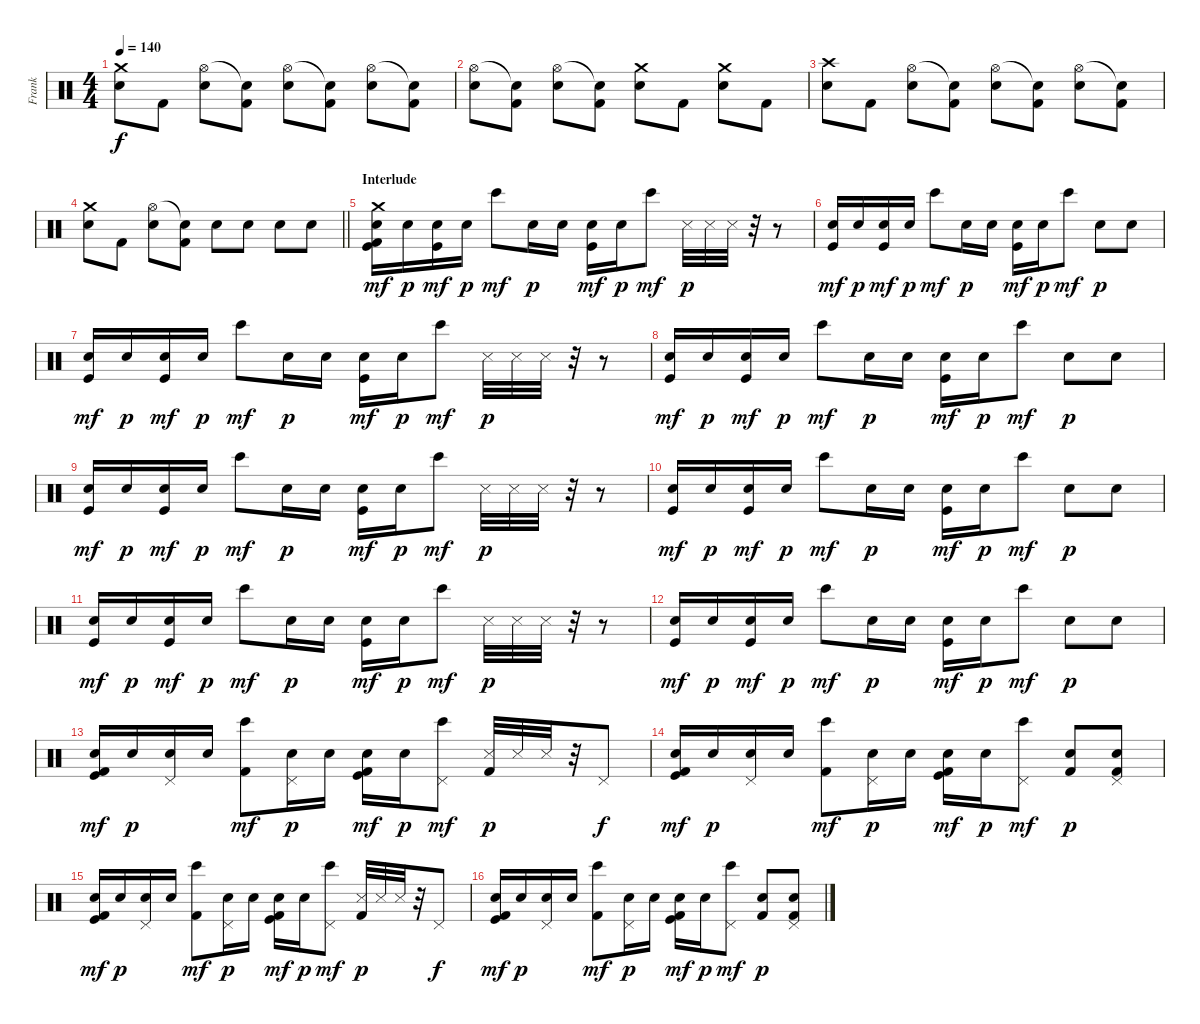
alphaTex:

\track ("Frank" "Frank") {instrument percussion}
\staff {score}
\articulation defaults
\ts (4 4)
\tempo 140
\clef neutral
\ks c
("Crash medium (hit)" "Snare (hit) 2").8{dy f} "Kick (hit) 2".8 ("Hi-Hat (open)" "Snare (hit) 2").8 ("Snare (hit)"{t} "Kick (hit) 2").8 ("Hi-Hat (open)" "Snare (hit) 2").8 ("Snare (hit)"{t} "Kick (hit) 2").8 ("Hi-Hat (open)" "Snare (hit) 2").8 ("Snare (hit)"{t} "Kick (hit) 2").8 |
("Hi-Hat (open)" "Snare (hit) 2").8 ("Snare (hit)"{t} "Kick (hit) 2").8 ("Hi-Hat (open)" "Snare (hit) 2").8 ("Snare (hit)"{t} "Kick (hit) 2").8 ("Crash medium (hit)" "Snare (hit) 2").8 "Kick (hit) 2".8 ("Crash medium (hit)" "Snare (hit) 2").8 "Kick (hit) 2".8 |
("Crash high (hit)" "Snare (hit) 2").8 "Kick (hit) 2".8 ("Hi-Hat (open)" "Snare (hit) 2").8 ("Snare (hit)"{t} "Kick (hit) 2").8 ("Hi-Hat (open)" "Snare (hit) 2").8 ("Snare (hit)"{t} "Kick (hit) 2").8 ("Hi-Hat (open)" "Snare (hit) 2").8 ("Snare (hit)"{t} "Kick (hit) 2").8 |
\barLineRight lightlight
("Crash medium (hit)" "Snare (hit) 2").8 "Kick (hit) 2".8 ("Hi-Hat (open)" "Snare (hit) 2").8 ("Snare (hit)"{t} "Kick (hit) 2").8 "Snare (hit) 2".8 "Snare (hit) 2".8 "Snare (hit) 2".8 "Snare (hit) 2".8 |
\section ("" "Interlude")
("Crash medium (hit)" "Kick (hit) 2" "Electric Snare (hit)" "Kick (hit)").16{dy mf volume 9} "Electric Snare (hit)".16{dy p} ("Electric Snare (hit)" "Kick (hit)").16{dy mf} "Electric Snare (hit)".16{dy p} "Bongo High (hit)".8{dy mf} "Electric Snare (hit)".16{dy p} "Electric Snare (hit)".16 ("Electric Snare (hit)" "Kick (hit)").16{dy mf} "Electric Snare (hit)".16{dy p} "Bongo High (hit)".8{dy mf} "Snare (side stick) 3".32{dy p} "Snare (side stick) 3".32 "Snare (side stick) 3".32 r.32 r.8 |
("Electric Snare (hit)" "Kick (hit)").16{dy mf} "Electric Snare (hit)".16{dy p} ("Electric Snare (hit)" "Kick (hit)").16{dy mf} "Electric Snare (hit)".16{dy p} "Bongo High (hit)".8{dy mf} "Electric Snare (hit)".16{dy p} "Electric Snare (hit)".16 ("Electric Snare (hit)" "Kick (hit)").16{dy mf} "Electric Snare (hit)".16{dy p} "Bongo High (hit)".8{dy mf} "Electric Snare (hit)".8{dy p} "Electric Snare (hit)".8 |
("Electric Snare (hit)" "Kick (hit)").16{dy mf} "Electric Snare (hit)".16{dy p} ("Electric Snare (hit)" "Kick (hit)").16{dy mf} "Electric Snare (hit)".16{dy p} "Bongo High (hit)".8{dy mf} "Electric Snare (hit)".16{dy p} "Electric Snare (hit)".16 ("Electric Snare (hit)" "Kick (hit)").16{dy mf} "Electric Snare (hit)".16{dy p} "Bongo High (hit)".8{dy mf} "Snare (side stick) 3".32{dy p} "Snare (side stick) 3".32 "Snare (side stick) 3".32 r.32 r.8 |
("Electric Snare (hit)" "Kick (hit)").16{dy mf} "Electric Snare (hit)".16{dy p} ("Electric Snare (hit)" "Kick (hit)").16{dy mf} "Electric Snare (hit)".16{dy p} "Bongo High (hit)".8{dy mf} "Electric Snare (hit)".16{dy p} "Electric Snare (hit)".16 ("Electric Snare (hit)" "Kick (hit)").16{dy mf} "Electric Snare (hit)".16{dy p} "Bongo High (hit)".8{dy mf} "Electric Snare (hit)".8{dy p} "Electric Snare (hit)".8 |
("Electric Snare (hit)" "Kick (hit)").16{dy mf} "Electric Snare (hit)".16{dy p} ("Electric Snare (hit)" "Kick (hit)").16{dy mf} "Electric Snare (hit)".16{dy p} "Bongo High (hit)".8{dy mf} "Electric Snare (hit)".16{dy p} "Electric Snare (hit)".16 ("Electric Snare (hit)" "Kick (hit)").16{dy mf} "Electric Snare (hit)".16{dy p} "Bongo High (hit)".8{dy mf} "Snare (side stick) 3".32{dy p} "Snare (side stick) 3".32 "Snare (side stick) 3".32 r.32 r.8 |
("Electric Snare (hit)" "Kick (hit)").16{dy mf} "Electric Snare (hit)".16{dy p} ("Electric Snare (hit)" "Kick (hit)").16{dy mf} "Electric Snare (hit)".16{dy p} "Bongo High (hit)".8{dy mf} "Electric Snare (hit)".16{dy p} "Electric Snare (hit)".16 ("Electric Snare (hit)" "Kick (hit)").16{dy mf} "Electric Snare (hit)".16{dy p} "Bongo High (hit)".8{dy mf} "Electric Snare (hit)".8{dy p} "Electric Snare (hit)".8 |
("Electric Snare (hit)" "Kick (hit)").16{dy mf} "Electric Snare (hit)".16{dy p} ("Electric Snare (hit)" "Kick (hit)").16{dy mf} "Electric Snare (hit)".16{dy p} "Bongo High (hit)".8{dy mf} "Electric Snare (hit)".16{dy p} "Electric Snare (hit)".16 ("Electric Snare (hit)" "Kick (hit)").16{dy mf} "Electric Snare (hit)".16{dy p} "Bongo High (hit)".8{dy mf} "Snare (side stick) 3".32{dy p} "Snare (side stick) 3".32 "Snare (side stick) 3".32 r.32 r.8 |
("Electric Snare (hit)" "Kick (hit)").16{dy mf} "Electric Snare (hit)".16{dy p} ("Electric Snare (hit)" "Kick (hit)").16{dy mf} "Electric Snare (hit)".16{dy p} "Bongo High (hit)".8{dy mf} "Electric Snare (hit)".16{dy p} "Electric Snare (hit)".16 ("Electric Snare (hit)" "Kick (hit)").16{dy mf} "Electric Snare (hit)".16{dy p} "Bongo High (hit)".8{dy mf} "Electric Snare (hit)".8{dy p} "Electric Snare (hit)".8 |
("Kick (hit) 2" "Electric Snare (hit)" "Kick (hit)").16{dy mf} "Electric Snare (hit)".16{dy p} ("Pedal Hi-Hat (hit)" "Electric Snare (hit)").16 "Electric Snare (hit)".16 ("Kick (hit) 2" "Bongo High (hit)").8{dy mf} ("Pedal Hi-Hat (hit)" "Electric Snare (hit)").16{dy p} "Electric Snare (hit)".16 ("Kick (hit) 2" "Electric Snare (hit)" "Kick (hit)").16{dy mf} "Electric Snare (hit)".16{dy p} ("Pedal Hi-Hat (hit)" "Bongo High (hit)").8{dy mf} ("Kick (hit) 2" "Snare (side stick) 3").32{dy p} "Snare (side stick) 3".32 "Snare (side stick) 3".32 r.32 "Pedal Hi-Hat (hit)".8{dy f} |
("Kick (hit) 2" "Electric Snare (hit)" "Kick (hit)").16{dy mf} "Electric Snare (hit)".16{dy p} ("Pedal Hi-Hat (hit)" "Electric Snare (hit)").16 "Electric Snare (hit)".16 ("Kick (hit) 2" "Bongo High (hit)").8{dy mf} ("Pedal Hi-Hat (hit)" "Electric Snare (hit)").16{dy p} "Electric Snare (hit)".16 ("Kick (hit) 2" "Electric Snare (hit)" "Kick (hit)").16{dy mf} "Electric Snare (hit)".16{dy p} ("Pedal Hi-Hat (hit)" "Bongo High (hit)").8{dy mf} ("Kick (hit) 2" "Electric Snare (hit)").8{dy p} ("Pedal Hi-Hat (hit)" "Kick (hit) 2" "Electric Snare (hit)").8 |
("Kick (hit) 2" "Electric Snare (hit)" "Kick (hit)").16{dy mf} "Electric Snare (hit)".16{dy p} ("Pedal Hi-Hat (hit)" "Electric Snare (hit)").16 "Electric Snare (hit)".16 ("Kick (hit) 2" "Bongo High (hit)").8{dy mf} ("Pedal Hi-Hat (hit)" "Electric Snare (hit)").16{dy p} "Electric Snare (hit)".16 ("Kick (hit) 2" "Electric Snare (hit)" "Kick (hit)").16{dy mf} "Electric Snare (hit)".16{dy p} ("Pedal Hi-Hat (hit)" "Bongo High (hit)").8{dy mf} ("Kick (hit) 2" "Snare (side stick) 3").32{dy p} "Snare (side stick) 3".32 "Snare (side stick) 3".32 r.32 "Pedal Hi-Hat (hit)".8{dy f} |
("Kick (hit) 2" "Electric Snare (hit)" "Kick (hit)").16{dy mf} "Electric Snare (hit)".16{dy p} ("Pedal Hi-Hat (hit)" "Electric Snare (hit)").16 "Electric Snare (hit)".16 ("Kick (hit) 2" "Bongo High (hit)").8{dy mf} ("Pedal Hi-Hat (hit)" "Electric Snare (hit)").16{dy p} "Electric Snare (hit)".16 ("Kick (hit) 2" "Electric Snare (hit)" "Kick (hit)").16{dy mf} "Electric Snare (hit)".16{dy p} ("Pedal Hi-Hat (hit)" "Bongo High (hit)").8{dy mf} ("Kick (hit) 2" "Electric Snare (hit)").8{dy p} ("Pedal Hi-Hat (hit)" "Kick (hit) 2" "Electric Snare (hit)").8
